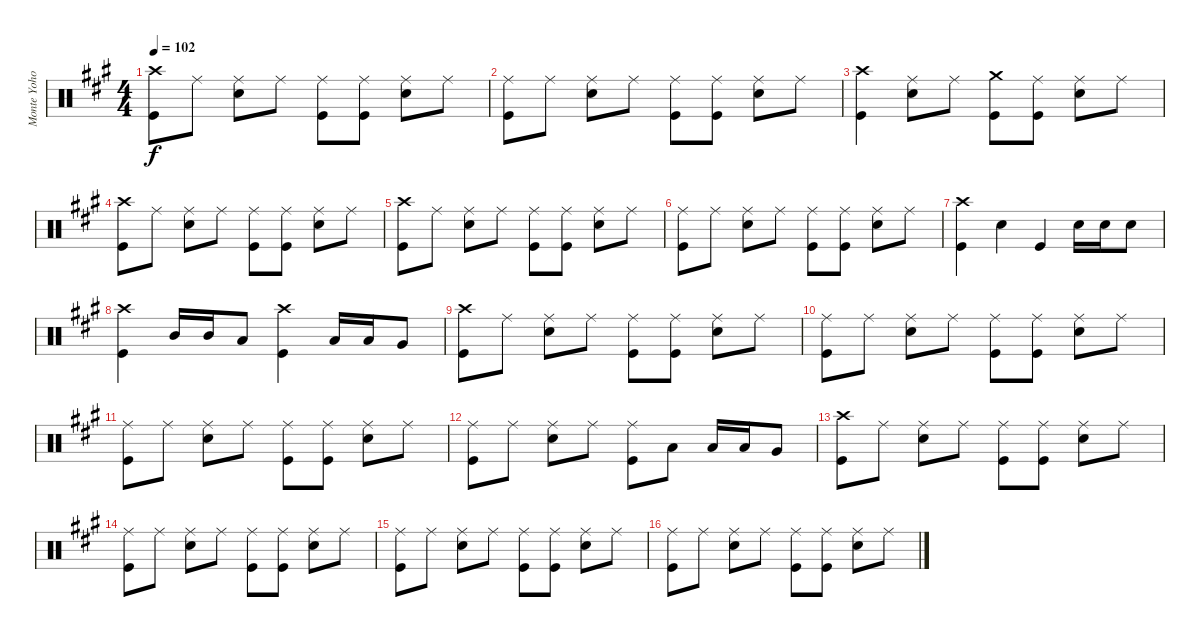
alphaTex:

\track ("Monte Yoho Drums" "Monte Yoho") {instrument percussion}
\staff {score}
\articulation defaults
\ts (4 4)
\tempo 102
\clef neutral
\ks a
("Crash high (hit)" "Kick (hit)").8{dy f} "Ride (middle)".8 ("Ride (middle)" "Snare (hit) 2").8 "Ride (middle)".8 ("Ride (middle)" "Kick (hit)").8 ("Ride (middle)" "Kick (hit)").8 ("Ride (middle)" "Snare (hit) 2").8 "Ride (middle)".8 |
("Ride (middle)" "Kick (hit)").8 "Ride (middle)".8 ("Ride (middle)" "Snare (hit) 2").8 "Ride (middle)".8 ("Ride (middle)" "Kick (hit)").8 ("Ride (middle)" "Kick (hit)").8 ("Ride (middle)" "Snare (hit) 2").8 "Ride (middle)".8 |
("Crash high (hit)" "Kick (hit)").4 ("Ride (middle)" "Snare (hit) 2").8 "Ride (middle)".8 ("Crash medium (hit)" "Kick (hit)").8 ("Ride (middle)" "Kick (hit)").8 ("Ride (middle)" "Snare (hit) 2").8 "Ride (middle)".8 |
("Crash high (hit)" "Kick (hit)").8 "Ride (middle)".8 ("Ride (middle)" "Snare (hit) 2").8 "Ride (middle)".8 ("Ride (middle)" "Kick (hit)").8 ("Ride (middle)" "Kick (hit)").8 ("Ride (middle)" "Snare (hit) 2").8 "Ride (middle)".8 |
("Crash high (hit)" "Kick (hit)").8 "Ride (middle)".8 ("Ride (middle)" "Snare (hit) 2").8 "Ride (middle)".8 ("Ride (middle)" "Kick (hit)").8 ("Ride (middle)" "Kick (hit)").8 ("Ride (middle)" "Snare (hit) 2").8 "Ride (middle)".8 |
("Ride (middle)" "Kick (hit)").8 "Ride (middle)".8 ("Ride (middle)" "Snare (hit) 2").8 "Ride (middle)".8 ("Ride (middle)" "Kick (hit)").8 ("Ride (middle)" "Kick (hit)").8 ("Ride (middle)" "Snare (hit) 2").8 "Ride (middle)".8 |
("Crash high (hit)" "Kick (hit)").4 "Snare (hit) 2".4 "Kick (hit)".4 "Snare (hit) 2".16 "Snare (hit) 2".16 "Snare (hit) 2".8 |
("Crash high (hit)" "Kick (hit)").4 "Mid Tom (hit)".16 "Mid Tom (hit)".16 "Low Tom (hit)".8 ("Crash high (hit)" "Kick (hit)").4 "Low Tom (hit)".16 "Low Tom (hit)".16 "Very Low Tom (hit)".8 |
("Crash high (hit)" "Kick (hit)").8 "Ride (middle)".8 ("Ride (middle)" "Snare (hit) 2").8 "Ride (middle)".8 ("Ride (middle)" "Kick (hit)").8 ("Ride (middle)" "Kick (hit)").8 ("Ride (middle)" "Snare (hit) 2").8 "Ride (middle)".8 |
("Ride (middle)" "Kick (hit)").8 "Ride (middle)".8 ("Ride (middle)" "Snare (hit) 2").8 "Ride (middle)".8 ("Ride (middle)" "Kick (hit)").8 ("Ride (middle)" "Kick (hit)").8 ("Ride (middle)" "Snare (hit) 2").8 "Ride (middle)".8 |
("Ride (middle)" "Kick (hit)").8 "Ride (middle)".8 ("Ride (middle)" "Snare (hit) 2").8 "Ride (middle)".8 ("Ride (middle)" "Kick (hit)").8 ("Ride (middle)" "Kick (hit)").8 ("Ride (middle)" "Snare (hit) 2").8 "Ride (middle)".8 |
("Ride (middle)" "Kick (hit)").8 "Ride (middle)".8 ("Ride (middle)" "Snare (hit) 2").8 "Ride (middle)".8 ("Ride (middle)" "Kick (hit)").8 "Low Tom (hit)".8 "Low Tom (hit)".16 "Low Tom (hit)".16 "Very Low Tom (hit)".8 |
("Crash high (hit)" "Kick (hit)").8 "Ride (middle)".8 ("Ride (middle)" "Snare (hit) 2").8 "Ride (middle)".8 ("Ride (middle)" "Kick (hit)").8 ("Ride (middle)" "Kick (hit)").8 ("Ride (middle)" "Snare (hit) 2").8 "Ride (middle)".8 |
("Ride (middle)" "Kick (hit)").8 "Ride (middle)".8 ("Ride (middle)" "Snare (hit) 2").8 "Ride (middle)".8 ("Ride (middle)" "Kick (hit)").8 ("Ride (middle)" "Kick (hit)").8 ("Ride (middle)" "Snare (hit) 2").8 "Ride (middle)".8 |
("Ride (middle)" "Kick (hit)").8 "Ride (middle)".8 ("Ride (middle)" "Snare (hit) 2").8 "Ride (middle)".8 ("Ride (middle)" "Kick (hit)").8 ("Ride (middle)" "Kick (hit)").8 ("Ride (middle)" "Snare (hit) 2").8 "Ride (middle)".8 |
("Ride (middle)" "Kick (hit)").8 "Ride (middle)".8 ("Ride (middle)" "Snare (hit) 2").8 "Ride (middle)".8 ("Ride (middle)" "Kick (hit)").8 ("Ride (middle)" "Kick (hit)").8 ("Ride (middle)" "Snare (hit) 2").8 "Ride (middle)".8
